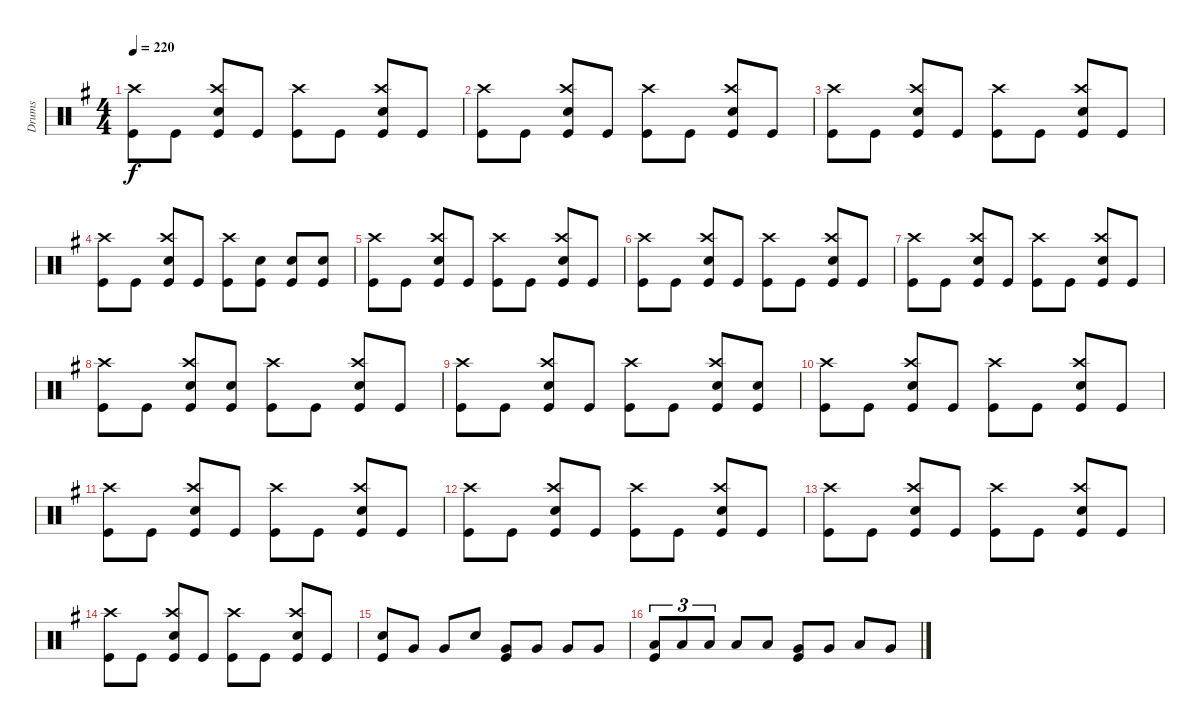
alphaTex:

\track ("Drums" "Drums") {instrument percussion}
\staff {score}
\articulation defaults
\ts (4 4)
\tempo 220
\clef neutral
\ks eminor
("Kick (hit)" "Crash high (hit)").8{dy f} "Kick (hit)".8 ("Kick (hit)" "Crash high (hit)" "Snare (hit) 2").8 "Kick (hit)".8 ("Kick (hit)" "Crash high (hit)").8 "Kick (hit)".8 ("Kick (hit)" "Crash high (hit)" "Snare (hit) 2").8 "Kick (hit)".8 |
("Kick (hit)" "Crash high (hit)").8 "Kick (hit)".8 ("Kick (hit)" "Crash high (hit)" "Snare (hit) 2").8 "Kick (hit)".8 ("Kick (hit)" "Crash high (hit)").8 "Kick (hit)".8 ("Kick (hit)" "Crash high (hit)" "Snare (hit) 2").8 "Kick (hit)".8 |
("Kick (hit)" "Crash high (hit)").8 "Kick (hit)".8 ("Kick (hit)" "Crash high (hit)" "Snare (hit) 2").8 "Kick (hit)".8 ("Kick (hit)" "Crash high (hit)").8 "Kick (hit)".8 ("Kick (hit)" "Crash high (hit)" "Snare (hit) 2").8 "Kick (hit)".8 |
("Kick (hit)" "Crash high (hit)").8 "Kick (hit)".8 ("Kick (hit)" "Crash high (hit)" "Snare (hit) 2").8 "Kick (hit)".8 ("Kick (hit)" "Crash high (hit)").8 ("Kick (hit)" "Snare (hit) 2").8 ("Kick (hit)" "Snare (hit) 2").8 ("Kick (hit)" "Snare (hit) 2").8 |
("Kick (hit)" "Crash high (hit)").8 "Kick (hit)".8 ("Kick (hit)" "Crash high (hit)" "Snare (hit) 2").8 "Kick (hit)".8 ("Kick (hit)" "Crash high (hit)").8 "Kick (hit)".8 ("Kick (hit)" "Crash high (hit)" "Snare (hit) 2").8 "Kick (hit)".8 |
("Kick (hit)" "Crash high (hit)").8 "Kick (hit)".8 ("Kick (hit)" "Crash high (hit)" "Snare (hit) 2").8 "Kick (hit)".8 ("Kick (hit)" "Crash high (hit)").8 "Kick (hit)".8 ("Kick (hit)" "Crash high (hit)" "Snare (hit) 2").8 "Kick (hit)".8 |
("Kick (hit)" "Crash high (hit)").8 "Kick (hit)".8 ("Kick (hit)" "Crash high (hit)" "Snare (hit) 2").8 "Kick (hit)".8 ("Kick (hit)" "Crash high (hit)").8 "Kick (hit)".8 ("Kick (hit)" "Crash high (hit)" "Snare (hit) 2").8 "Kick (hit)".8 |
("Kick (hit)" "Crash high (hit)").8 "Kick (hit)".8 ("Kick (hit)" "Crash high (hit)" "Snare (hit) 2").8 ("Kick (hit)" "Snare (hit) 2").8 ("Kick (hit)" "Crash high (hit)").8 "Kick (hit)".8 ("Kick (hit)" "Crash high (hit)" "Snare (hit) 2").8 "Kick (hit)".8 |
("Kick (hit)" "Crash high (hit)").8 "Kick (hit)".8 ("Kick (hit)" "Crash high (hit)" "Snare (hit) 2").8 "Kick (hit)".8 ("Kick (hit)" "Crash high (hit)").8 "Kick (hit)".8 ("Kick (hit)" "Crash high (hit)" "Snare (hit) 2").8 ("Kick (hit)" "Snare (hit) 2").8 |
("Kick (hit)" "Crash high (hit)").8 "Kick (hit)".8 ("Kick (hit)" "Crash high (hit)" "Snare (hit) 2").8 "Kick (hit)".8 ("Kick (hit)" "Crash high (hit)").8 "Kick (hit)".8 ("Kick (hit)" "Crash high (hit)" "Snare (hit) 2").8 "Kick (hit)".8 |
("Kick (hit)" "Crash high (hit)").8 "Kick (hit)".8 ("Kick (hit)" "Crash high (hit)" "Snare (hit) 2").8 "Kick (hit)".8 ("Kick (hit)" "Crash high (hit)").8 "Kick (hit)".8 ("Kick (hit)" "Crash high (hit)" "Snare (hit) 2").8 "Kick (hit)".8 |
("Kick (hit)" "Crash high (hit)").8 "Kick (hit)".8 ("Kick (hit)" "Crash high (hit)" "Snare (hit) 2").8 "Kick (hit)".8 ("Kick (hit)" "Crash high (hit)").8 "Kick (hit)".8 ("Kick (hit)" "Crash high (hit)" "Snare (hit) 2").8 "Kick (hit)".8 |
("Kick (hit)" "Crash high (hit)").8 "Kick (hit)".8 ("Kick (hit)" "Crash high (hit)" "Snare (hit) 2").8 "Kick (hit)".8 ("Kick (hit)" "Crash high (hit)").8 "Kick (hit)".8 ("Kick (hit)" "Crash high (hit)" "Snare (hit) 2").8 "Kick (hit)".8 |
("Kick (hit)" "Crash high (hit)").8 "Kick (hit)".8 ("Kick (hit)" "Crash high (hit)" "Snare (hit) 2").8 "Kick (hit)".8 ("Kick (hit)" "Crash high (hit)").8 "Kick (hit)".8 ("Kick (hit)" "Crash high (hit)" "Snare (hit) 2").8 "Kick (hit)".8 |
("Snare (hit) 2" "Kick (hit)").8 "Very Low Tom (hit)".8 "Very Low Tom (hit)".8 "Snare (hit) 2".8 ("Kick (hit)" "Very Low Tom (hit)").8 "Very Low Tom (hit)".8 "Very Low Tom (hit)".8 "Very Low Tom (hit)".8 |
("Low Tom (hit)" "Kick (hit)").8{tu (3 2)} "Low Tom (hit)".8{tu (3 2)} "Low Tom (hit)".8{tu (3 2)} "Low Tom (hit)".8 "Low Tom (hit)".8 ("Very Low Tom (hit)" "Kick (hit)").8 "Very Low Tom (hit)".8 "Low Tom (hit)".8 "Very Low Tom (hit)".8
